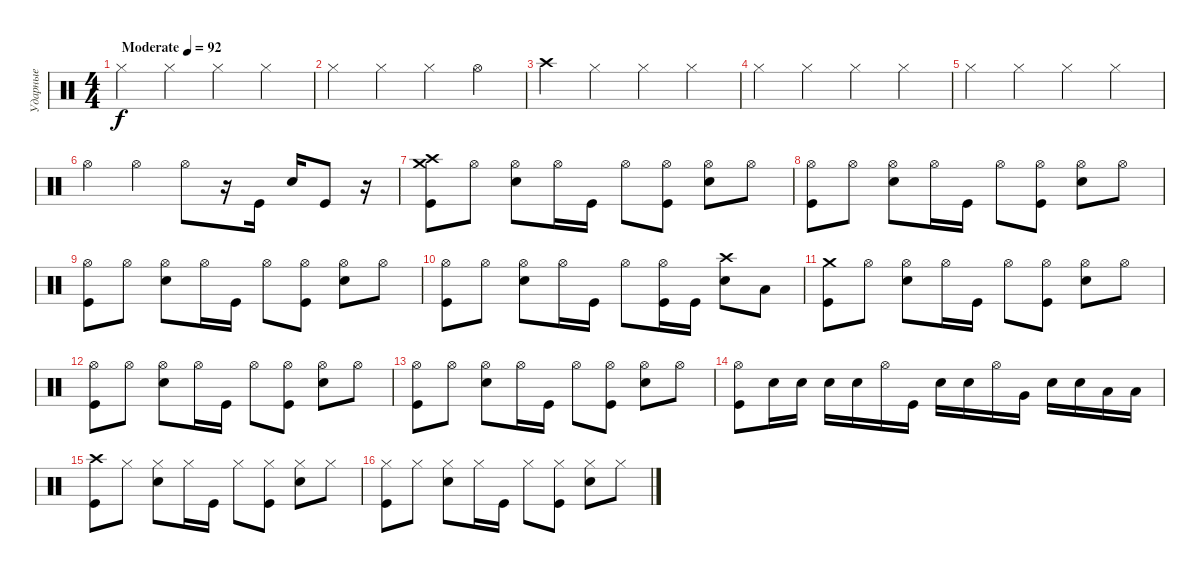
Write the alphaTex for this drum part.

\track ("Ударные" "Ударные") {instrument percussion}
\staff {score}
\articulation defaults
\ts (4 4)
\tempo (92 "Moderate")
\clef neutral
\ks c "Hi-Hat (closed)".4{dy f} "Hi-Hat (closed)".4 "Hi-Hat (closed)".4 "Hi-Hat (closed)".4
|
"Hi-Hat (closed)".4 "Hi-Hat (closed)".4 "Hi-Hat (closed)".4 "Hi-Hat (open)".4 |
"Crash high (hit)".4 "Hi-Hat (closed)".4 "Hi-Hat (closed)".4 "Hi-Hat (closed)".4 |
"Hi-Hat (closed)".4 "Hi-Hat (closed)".4 "Hi-Hat (closed)".4 "Hi-Hat (closed)".4 |
"Hi-Hat (closed)".4 "Hi-Hat (closed)".4 "Hi-Hat (closed)".4 "Hi-Hat (closed)".4 |
"Hi-Hat (open)".4 "Hi-Hat (open)".4 "Hi-Hat (open)".8 r.16 "Kick (hit)".16 "Snare (hit) 2".16 "Kick (hit)".8 r.16 |
("Kick (hit)" "Crash high (hit)" "Crash medium (hit)").8 "Hi-Hat (open)".8 ("Hi-Hat (open)" "Snare (hit) 2").8 "Hi-Hat (open)".16 "Kick (hit)".16 "Hi-Hat (open)".8 ("Kick (hit)" "Hi-Hat (open)").8 ("Hi-Hat (open)" "Snare (hit) 2").8 "Hi-Hat (open)".8 |
("Kick (hit)" "Hi-Hat (open)").8 "Hi-Hat (open)".8 ("Hi-Hat (open)" "Snare (hit) 2").8 "Hi-Hat (open)".16 "Kick (hit)".16 "Hi-Hat (open)".8 ("Kick (hit)" "Hi-Hat (open)").8 ("Hi-Hat (open)" "Snare (hit) 2").8 "Hi-Hat (open)".8 |
("Kick (hit)" "Hi-Hat (open)").8 "Hi-Hat (open)".8 ("Hi-Hat (open)" "Snare (hit) 2").8 "Hi-Hat (open)".16 "Kick (hit)".16 "Hi-Hat (open)".8 ("Kick (hit)" "Hi-Hat (open)").8 ("Hi-Hat (open)" "Snare (hit) 2").8 "Hi-Hat (open)".8 |
("Kick (hit)" "Hi-Hat (open)").8 "Hi-Hat (open)".8 ("Hi-Hat (open)" "Snare (hit) 2").8 "Hi-Hat (open)".16 "Kick (hit)".16 "Hi-Hat (open)".8 ("Kick (hit)" "Hi-Hat (open)").16 "Kick (hit)".16 ("Crash high (hit)" "Snare (hit) 2").8 "Low Tom (hit)".8 |
("Kick (hit)" "Crash medium (hit)").8 "Hi-Hat (open)".8 ("Hi-Hat (open)" "Snare (hit) 2").8 "Hi-Hat (open)".16 "Kick (hit)".16 "Hi-Hat (open)".8 ("Kick (hit)" "Hi-Hat (open)").8 ("Hi-Hat (open)" "Snare (hit) 2").8 "Hi-Hat (open)".8 |
("Kick (hit)" "Hi-Hat (open)").8 "Hi-Hat (open)".8 ("Hi-Hat (open)" "Snare (hit) 2").8 "Hi-Hat (open)".16 "Kick (hit)".16 "Hi-Hat (open)".8 ("Kick (hit)" "Hi-Hat (open)").8 ("Hi-Hat (open)" "Snare (hit) 2").8 "Hi-Hat (open)".8 |
("Kick (hit)" "Hi-Hat (open)").8 "Hi-Hat (open)".8 ("Hi-Hat (open)" "Snare (hit) 2").8 "Hi-Hat (open)".16 "Kick (hit)".16 "Hi-Hat (open)".8 ("Kick (hit)" "Hi-Hat (open)").8 ("Hi-Hat (open)" "Snare (hit) 2").8 "Hi-Hat (open)".8 |
("Hi-Hat (open)" "Kick (hit)").8 "Snare (hit) 2".16 "Snare (hit) 2".16 "Snare (hit) 2".16 "Snare (hit) 2".16 "Hi-Hat (open)".16 "Kick (hit)".16 "Snare (hit) 2".16 "Snare (hit) 2".16 "Hi-Hat (open)".16 "Very Low Tom (hit)".16 "Snare (hit) 2".16 "Snare (hit) 2".16 "Low Floor Tom (hit)".16 "Low Tom (hit)".16 |
("Kick (hit)" "Crash high (hit)").8 "Hi-Hat (closed)".8 ("Hi-Hat (closed)" "Snare (hit) 2").8 "Hi-Hat (closed)".16 "Kick (hit)".16 "Hi-Hat (closed)".8 ("Kick (hit)" "Hi-Hat (closed)").8 ("Hi-Hat (closed)" "Snare (hit) 2").8 "Hi-Hat (closed)".8 |
("Kick (hit)" "Hi-Hat (closed)").8 "Hi-Hat (closed)".8 ("Hi-Hat (closed)" "Snare (hit) 2").8 "Hi-Hat (closed)".16 "Kick (hit)".16 "Hi-Hat (closed)".8 ("Kick (hit)" "Hi-Hat (closed)").8 ("Hi-Hat (closed)" "Snare (hit) 2").8 "Hi-Hat (closed)".8
